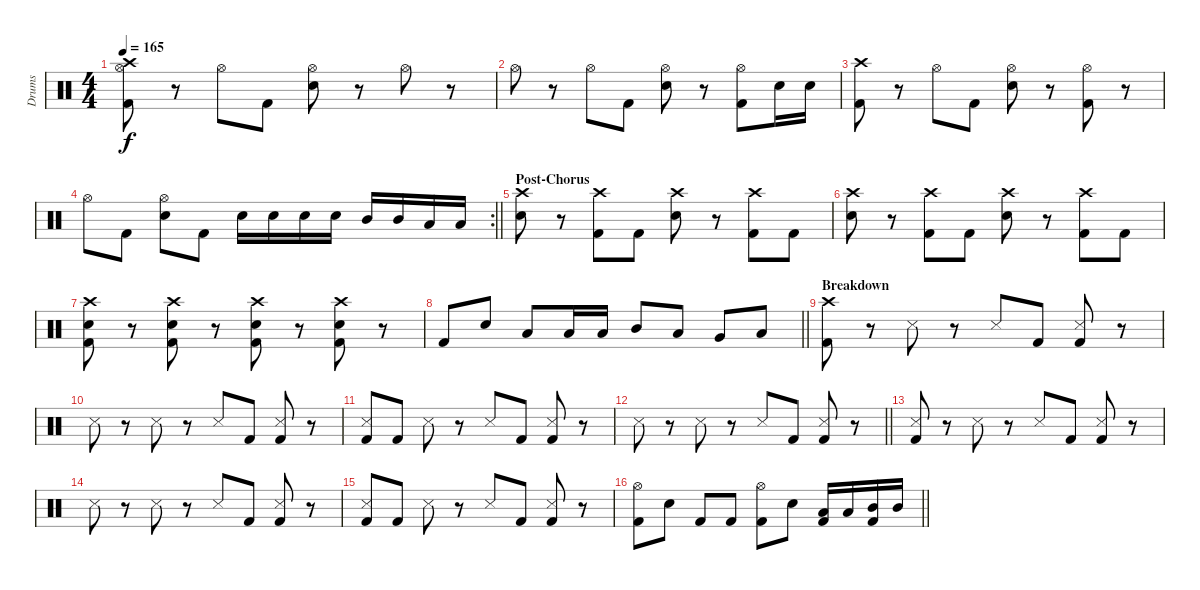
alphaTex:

\track ("Drums" "Drums") {instrument percussion}
\staff {score}
\articulation defaults
\ts (4 4)
\tempo 165
\clef neutral
\ks c
("Crash high (hit)" "Hi-Hat (open)" "Kick (hit) 2").8{dy f} r.8 "Hi-Hat (open)".8 "Kick (hit) 2".8 ("Hi-Hat (open)" "Electric Snare (hit)").8 r.8 "Hi-Hat (open)".8 r.8 |
"Hi-Hat (open)".8 r.8 "Hi-Hat (open)".8 "Kick (hit) 2".8 ("Hi-Hat (open)" "Electric Snare (hit)").8 r.8 ("Hi-Hat (open)" "Kick (hit) 2").8 "Electric Snare (hit)".16 "Electric Snare (hit)".16 |
("Crash high (hit)" "Kick (hit) 2").8 r.8 "Hi-Hat (open)".8 "Kick (hit) 2".8 ("Hi-Hat (open)" "Electric Snare (hit)").8 r.8 ("Hi-Hat (open)" "Kick (hit) 2").8 r.8 |
\rc 2
\barLineRight lightlight "Hi-Hat (open)".8 "Kick (hit) 2".8
("Hi-Hat (open)" "Electric Snare (hit)").8 "Kick (hit) 2".8 "Electric Snare (hit)".16 "Electric Snare (hit)".16 "Electric Snare (hit)".16 "Electric Snare (hit)".16 "Mid Tom (hit)".16 "Mid Tom (hit)".16 "Low Tom (hit)".16 "Low Tom (hit)".16 |
\section ("" "Post-Chorus")
("Crash high (hit)" "Electric Snare (hit)").8 r.8 ("Crash high (hit)" "Kick (hit) 2").8 "Kick (hit) 2".8 ("Crash high (hit)" "Electric Snare (hit)").8 r.8 ("Crash high (hit)" "Kick (hit) 2").8 "Kick (hit) 2".8 |
("Crash high (hit)" "Electric Snare (hit)").8 r.8 ("Crash high (hit)" "Kick (hit) 2").8 "Kick (hit) 2".8 ("Crash high (hit)" "Electric Snare (hit)").8 r.8 ("Crash high (hit)" "Kick (hit) 2").8 "Kick (hit) 2".8 |
("Crash high (hit)" "Electric Snare (hit)" "Kick (hit) 2").8 r.8 ("Crash high (hit)" "Electric Snare (hit)" "Kick (hit) 2").8 r.8 ("Crash high (hit)" "Electric Snare (hit)" "Kick (hit) 2").8 r.8 ("Crash high (hit)" "Electric Snare (hit)" "Kick (hit) 2").8 r.8 |
\barLineRight lightlight "Kick (hit) 2".8 "Electric Snare (hit)".8 "Low Tom (hit)".8 "Low Tom (hit)".16 "Low Tom (hit)".16 "Mid Tom (hit)".8 "Low Tom (hit)".8 "Very Low Tom (hit)".8 "Low Floor Tom (hit)".8
|
\section ("" "Breakdown")
("Crash high (hit)" "Kick (hit) 2").8 r.8 "Metronome (hit)".8 r.8 "Metronome (hit)".8 "Kick (hit) 2".8 ("Metronome (hit)" "Kick (hit) 2").8 r.8 |
"Metronome (hit)".8 r.8 "Metronome (hit)".8 r.8 "Metronome (hit)".8 "Kick (hit) 2".8 ("Metronome (hit)" "Kick (hit) 2").8 r.8 |
("Metronome (hit)" "Kick (hit) 2").8 "Kick (hit) 2".8 "Metronome (hit)".8 r.8 "Metronome (hit)".8 "Kick (hit) 2".8 ("Metronome (hit)" "Kick (hit) 2").8 r.8 |
\barLineRight lightlight "Metronome (hit)".8
r.8 "Metronome (hit)".8 r.8 "Metronome (hit)".8 "Kick (hit) 2".8 ("Metronome (hit)" "Kick (hit) 2").8 r.8 |
("Metronome (hit)" "Kick (hit) 2").8 r.8 "Metronome (hit)".8 r.8 "Metronome (hit)".8 "Kick (hit) 2".8 ("Metronome (hit)" "Kick (hit) 2").8 r.8 |
"Metronome (hit)".8 r.8 "Metronome (hit)".8 r.8 "Metronome (hit)".8 "Kick (hit) 2".8 ("Metronome (hit)" "Kick (hit) 2").8 r.8 |
("Metronome (hit)" "Kick (hit) 2").8 "Kick (hit) 2".8 "Metronome (hit)".8 r.8 "Metronome (hit)".8 "Kick (hit) 2".8 ("Metronome (hit)" "Kick (hit) 2").8 r.8 |
\barLineRight lightlight
("Hi-Hat (open)" "Kick (hit) 2").8 "Electric Snare (hit)".8 "Kick (hit) 2".8 "Kick (hit) 2".8 ("Hi-Hat (open)" "Kick (hit) 2").8 "Electric Snare (hit)".8 ("Low Tom (hit)" "Kick (hit) 2").16 "Low Tom (hit)".16 ("Mid Tom (hit)" "Kick (hit) 2").16 "Mid Tom (hit)".16
